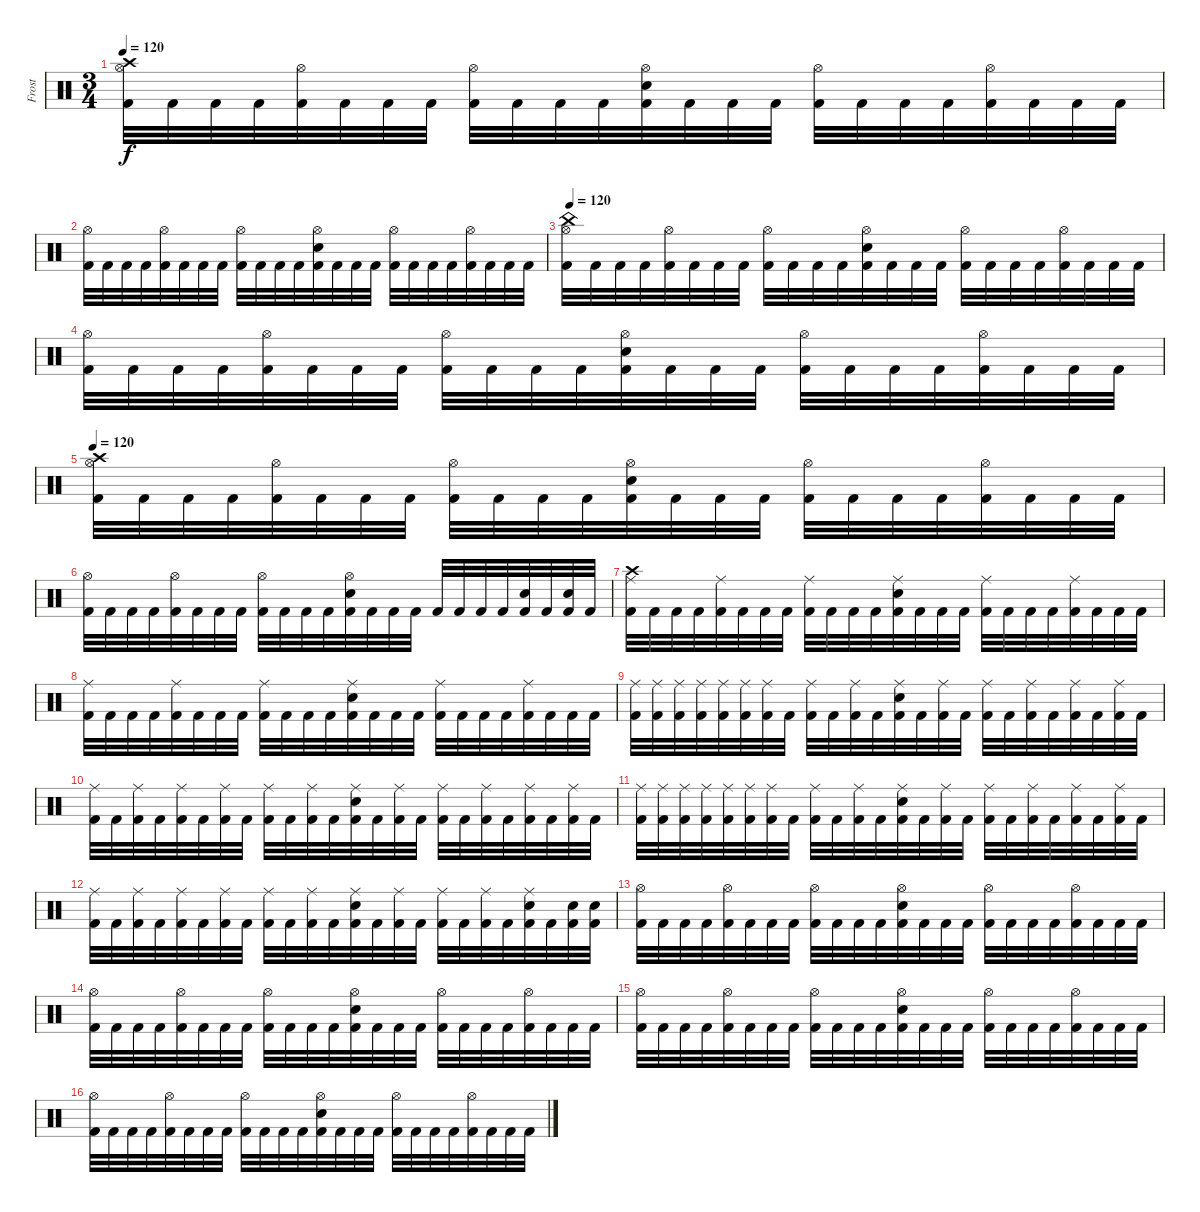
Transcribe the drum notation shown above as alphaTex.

\track ("Frost" "Frost") {instrument percussion}
\staff {score}
\articulation defaults
\ts (3 4)
\tempo 120
\clef neutral
\ks c
("Crash high (hit)" "Kick (hit) 2" "Hi-Hat (open)").32{dy f} "Kick (hit) 2".32 "Kick (hit) 2".32 "Kick (hit) 2".32 ("Kick (hit) 2" "Hi-Hat (open)").32 "Kick (hit) 2".32 "Kick (hit) 2".32 "Kick (hit) 2".32 ("Kick (hit) 2" "Hi-Hat (open)").32 "Kick (hit) 2".32 "Kick (hit) 2".32 "Kick (hit) 2".32 ("Kick (hit) 2" "Electric Snare (hit)" "Hi-Hat (open)").32 "Kick (hit) 2".32 "Kick (hit) 2".32 "Kick (hit) 2".32 ("Kick (hit) 2" "Hi-Hat (open)").32 "Kick (hit) 2".32 "Kick (hit) 2".32 "Kick (hit) 2".32 ("Kick (hit) 2" "Hi-Hat (open)").32 "Kick (hit) 2".32 "Kick (hit) 2".32 "Kick (hit) 2".32 |
("Kick (hit) 2" "Hi-Hat (open)").32 "Kick (hit) 2".32 "Kick (hit) 2".32 "Kick (hit) 2".32 ("Kick (hit) 2" "Hi-Hat (open)").32 "Kick (hit) 2".32 "Kick (hit) 2".32 "Kick (hit) 2".32 ("Kick (hit) 2" "Hi-Hat (open)").32 "Kick (hit) 2".32 "Kick (hit) 2".32 "Kick (hit) 2".32 ("Kick (hit) 2" "Electric Snare (hit)" "Hi-Hat (open)").32 "Kick (hit) 2".32 "Kick (hit) 2".32 "Kick (hit) 2".32 ("Kick (hit) 2" "Hi-Hat (open)").32 "Kick (hit) 2".32 "Kick (hit) 2".32 "Kick (hit) 2".32 ("Kick (hit) 2" "Hi-Hat (open)").32 "Kick (hit) 2".32 "Kick (hit) 2".32 "Kick (hit) 2".32 |
\tempo 120
("China (hit)" "Kick (hit) 2" "Hi-Hat (open)").32 "Kick (hit) 2".32 "Kick (hit) 2".32 "Kick (hit) 2".32 ("Kick (hit) 2" "Hi-Hat (open)").32 "Kick (hit) 2".32 "Kick (hit) 2".32 "Kick (hit) 2".32 ("Kick (hit) 2" "Hi-Hat (open)").32 "Kick (hit) 2".32 "Kick (hit) 2".32 "Kick (hit) 2".32 ("Kick (hit) 2" "Electric Snare (hit)" "Hi-Hat (open)").32 "Kick (hit) 2".32 "Kick (hit) 2".32 "Kick (hit) 2".32 ("Kick (hit) 2" "Hi-Hat (open)").32 "Kick (hit) 2".32 "Kick (hit) 2".32 "Kick (hit) 2".32 ("Kick (hit) 2" "Hi-Hat (open)").32 "Kick (hit) 2".32 "Kick (hit) 2".32 "Kick (hit) 2".32 |
("Kick (hit) 2" "Hi-Hat (open)").32 "Kick (hit) 2".32 "Kick (hit) 2".32 "Kick (hit) 2".32 ("Kick (hit) 2" "Hi-Hat (open)").32 "Kick (hit) 2".32 "Kick (hit) 2".32 "Kick (hit) 2".32 ("Kick (hit) 2" "Hi-Hat (open)").32 "Kick (hit) 2".32 "Kick (hit) 2".32 "Kick (hit) 2".32 ("Kick (hit) 2" "Electric Snare (hit)" "Hi-Hat (open)").32 "Kick (hit) 2".32 "Kick (hit) 2".32 "Kick (hit) 2".32 ("Kick (hit) 2" "Hi-Hat (open)").32 "Kick (hit) 2".32 "Kick (hit) 2".32 "Kick (hit) 2".32 ("Kick (hit) 2" "Hi-Hat (open)").32 "Kick (hit) 2".32 "Kick (hit) 2".32 "Kick (hit) 2".32 |
\tempo 120
("Crash high (hit)" "Kick (hit) 2" "Hi-Hat (open)").32 "Kick (hit) 2".32 "Kick (hit) 2".32 "Kick (hit) 2".32 ("Kick (hit) 2" "Hi-Hat (open)").32 "Kick (hit) 2".32 "Kick (hit) 2".32 "Kick (hit) 2".32 ("Kick (hit) 2" "Hi-Hat (open)").32 "Kick (hit) 2".32 "Kick (hit) 2".32 "Kick (hit) 2".32 ("Kick (hit) 2" "Electric Snare (hit)" "Hi-Hat (open)").32 "Kick (hit) 2".32 "Kick (hit) 2".32 "Kick (hit) 2".32 ("Kick (hit) 2" "Hi-Hat (open)").32 "Kick (hit) 2".32 "Kick (hit) 2".32 "Kick (hit) 2".32 ("Kick (hit) 2" "Hi-Hat (open)").32 "Kick (hit) 2".32 "Kick (hit) 2".32 "Kick (hit) 2".32 |
("Kick (hit) 2" "Hi-Hat (open)").32 "Kick (hit) 2".32 "Kick (hit) 2".32 "Kick (hit) 2".32 ("Kick (hit) 2" "Hi-Hat (open)").32 "Kick (hit) 2".32 "Kick (hit) 2".32 "Kick (hit) 2".32 ("Kick (hit) 2" "Hi-Hat (open)").32 "Kick (hit) 2".32 "Kick (hit) 2".32 "Kick (hit) 2".32 ("Kick (hit) 2" "Electric Snare (hit)" "Hi-Hat (open)").32 "Kick (hit) 2".32 "Kick (hit) 2".32 "Kick (hit) 2".32 "Kick (hit) 2".32 "Kick (hit) 2".32 "Kick (hit) 2".32 "Kick (hit) 2".32 ("Kick (hit) 2" "Electric Snare (hit)").32 "Kick (hit) 2".32 ("Kick (hit) 2" "Electric Snare (hit)").32 "Kick (hit) 2".32 |
("Crash high (hit)" "Kick (hit) 2" "Ride (middle)").32 "Kick (hit) 2".32 "Kick (hit) 2".32 "Kick (hit) 2".32 ("Kick (hit) 2" "Ride (middle)").32 "Kick (hit) 2".32 "Kick (hit) 2".32 "Kick (hit) 2".32 ("Kick (hit) 2" "Ride (middle)").32 "Kick (hit) 2".32 "Kick (hit) 2".32 "Kick (hit) 2".32 ("Kick (hit) 2" "Electric Snare (hit)" "Ride (middle)").32 "Kick (hit) 2".32 "Kick (hit) 2".32 "Kick (hit) 2".32 ("Kick (hit) 2" "Ride (middle)").32 "Kick (hit) 2".32 "Kick (hit) 2".32 "Kick (hit) 2".32 ("Kick (hit) 2" "Ride (middle)").32 "Kick (hit) 2".32 "Kick (hit) 2".32 "Kick (hit) 2".32 |
("Kick (hit) 2" "Ride (middle)").32 "Kick (hit) 2".32 "Kick (hit) 2".32 "Kick (hit) 2".32 ("Kick (hit) 2" "Ride (middle)").32 "Kick (hit) 2".32 "Kick (hit) 2".32 "Kick (hit) 2".32 ("Kick (hit) 2" "Ride (middle)").32 "Kick (hit) 2".32 "Kick (hit) 2".32 "Kick (hit) 2".32 ("Kick (hit) 2" "Electric Snare (hit)" "Ride (middle)").32 "Kick (hit) 2".32 "Kick (hit) 2".32 "Kick (hit) 2".32 ("Kick (hit) 2" "Ride (middle)").32 "Kick (hit) 2".32 "Kick (hit) 2".32 "Kick (hit) 2".32 ("Kick (hit) 2" "Ride (middle)").32 "Kick (hit) 2".32 "Kick (hit) 2".32 "Kick (hit) 2".32 |
("Kick (hit) 2" "Ride (middle)").32 ("Kick (hit) 2" "Ride (middle)").32 ("Kick (hit) 2" "Ride (middle)").32 ("Kick (hit) 2" "Ride (middle)").32 ("Kick (hit) 2" "Ride (middle)").32 ("Kick (hit) 2" "Ride (middle)").32 ("Kick (hit) 2" "Ride (middle)").32 "Kick (hit) 2".32 ("Kick (hit) 2" "Ride (middle)").32 "Kick (hit) 2".32 ("Kick (hit) 2" "Ride (middle)").32 "Kick (hit) 2".32 ("Kick (hit) 2" "Electric Snare (hit)" "Ride (middle)").32 "Kick (hit) 2".32 ("Kick (hit) 2" "Ride (middle)").32 "Kick (hit) 2".32 ("Kick (hit) 2" "Ride (middle)").32 "Kick (hit) 2".32 ("Kick (hit) 2" "Ride (middle)").32 "Kick (hit) 2".32 ("Kick (hit) 2" "Ride (middle)").32 "Kick (hit) 2".32 ("Kick (hit) 2" "Ride (middle)").32 "Kick (hit) 2".32 |
("Kick (hit) 2" "Ride (middle)").32 "Kick (hit) 2".32 ("Kick (hit) 2" "Ride (middle)").32 "Kick (hit) 2".32 ("Kick (hit) 2" "Ride (middle)").32 "Kick (hit) 2".32 ("Kick (hit) 2" "Ride (middle)").32 "Kick (hit) 2".32 ("Kick (hit) 2" "Ride (middle)").32 "Kick (hit) 2".32 ("Kick (hit) 2" "Ride (middle)").32 "Kick (hit) 2".32 ("Kick (hit) 2" "Electric Snare (hit)" "Ride (middle)").32 "Kick (hit) 2".32 ("Kick (hit) 2" "Ride (middle)").32 "Kick (hit) 2".32 ("Kick (hit) 2" "Ride (middle)").32 "Kick (hit) 2".32 ("Kick (hit) 2" "Ride (middle)").32 "Kick (hit) 2".32 ("Kick (hit) 2" "Ride (middle)").32 "Kick (hit) 2".32 ("Kick (hit) 2" "Ride (middle)").32 "Kick (hit) 2".32 |
("Kick (hit) 2" "Ride (middle)").32 ("Kick (hit) 2" "Ride (middle)").32 ("Kick (hit) 2" "Ride (middle)").32 ("Kick (hit) 2" "Ride (middle)").32 ("Kick (hit) 2" "Ride (middle)").32 ("Kick (hit) 2" "Ride (middle)").32 ("Kick (hit) 2" "Ride (middle)").32 "Kick (hit) 2".32 ("Kick (hit) 2" "Ride (middle)").32 "Kick (hit) 2".32 ("Kick (hit) 2" "Ride (middle)").32 "Kick (hit) 2".32 ("Kick (hit) 2" "Electric Snare (hit)" "Ride (middle)").32 "Kick (hit) 2".32 ("Kick (hit) 2" "Ride (middle)").32 "Kick (hit) 2".32 ("Kick (hit) 2" "Ride (middle)").32 "Kick (hit) 2".32 ("Kick (hit) 2" "Ride (middle)").32 "Kick (hit) 2".32 ("Kick (hit) 2" "Ride (middle)").32 "Kick (hit) 2".32 ("Kick (hit) 2" "Ride (middle)").32 "Kick (hit) 2".32 |
("Kick (hit) 2" "Ride (middle)").32 "Kick (hit) 2".32 ("Kick (hit) 2" "Ride (middle)").32 "Kick (hit) 2".32 ("Kick (hit) 2" "Ride (middle)").32 "Kick (hit) 2".32 ("Kick (hit) 2" "Ride (middle)").32 "Kick (hit) 2".32 ("Kick (hit) 2" "Ride (middle)").32 "Kick (hit) 2".32 ("Kick (hit) 2" "Ride (middle)").32 "Kick (hit) 2".32 ("Kick (hit) 2" "Electric Snare (hit)" "Ride (middle)").32 "Kick (hit) 2".32 ("Kick (hit) 2" "Ride (middle)").32 "Kick (hit) 2".32 ("Kick (hit) 2" "Ride (middle)").32 "Kick (hit) 2".32 ("Kick (hit) 2" "Ride (middle)").32 "Kick (hit) 2".32 ("Kick (hit) 2" "Electric Snare (hit)" "Ride (middle)").32 "Kick (hit) 2".32 ("Kick (hit) 2" "Electric Snare (hit)").32 ("Kick (hit) 2" "Electric Snare (hit)").32 |
("Kick (hit) 2" "Hi-Hat (open)").32 "Kick (hit) 2".32 "Kick (hit) 2".32 "Kick (hit) 2".32 ("Kick (hit) 2" "Hi-Hat (open)").32 "Kick (hit) 2".32 "Kick (hit) 2".32 "Kick (hit) 2".32 ("Kick (hit) 2" "Hi-Hat (open)").32 "Kick (hit) 2".32 "Kick (hit) 2".32 "Kick (hit) 2".32 ("Kick (hit) 2" "Electric Snare (hit)" "Hi-Hat (open)").32 "Kick (hit) 2".32 "Kick (hit) 2".32 "Kick (hit) 2".32 ("Kick (hit) 2" "Hi-Hat (open)").32 "Kick (hit) 2".32 "Kick (hit) 2".32 "Kick (hit) 2".32 ("Kick (hit) 2" "Hi-Hat (open)").32 "Kick (hit) 2".32 "Kick (hit) 2".32 "Kick (hit) 2".32 |
("Kick (hit) 2" "Hi-Hat (open)").32 "Kick (hit) 2".32 "Kick (hit) 2".32 "Kick (hit) 2".32 ("Kick (hit) 2" "Hi-Hat (open)").32 "Kick (hit) 2".32 "Kick (hit) 2".32 "Kick (hit) 2".32 ("Kick (hit) 2" "Hi-Hat (open)").32 "Kick (hit) 2".32 "Kick (hit) 2".32 "Kick (hit) 2".32 ("Kick (hit) 2" "Electric Snare (hit)" "Hi-Hat (open)").32 "Kick (hit) 2".32 "Kick (hit) 2".32 "Kick (hit) 2".32 ("Kick (hit) 2" "Hi-Hat (open)").32 "Kick (hit) 2".32 "Kick (hit) 2".32 "Kick (hit) 2".32 ("Kick (hit) 2" "Hi-Hat (open)").32 "Kick (hit) 2".32 "Kick (hit) 2".32 "Kick (hit) 2".32 |
("Kick (hit) 2" "Hi-Hat (open)").32 "Kick (hit) 2".32 "Kick (hit) 2".32 "Kick (hit) 2".32 ("Kick (hit) 2" "Hi-Hat (open)").32 "Kick (hit) 2".32 "Kick (hit) 2".32 "Kick (hit) 2".32 ("Kick (hit) 2" "Hi-Hat (open)").32 "Kick (hit) 2".32 "Kick (hit) 2".32 "Kick (hit) 2".32 ("Kick (hit) 2" "Electric Snare (hit)" "Hi-Hat (open)").32 "Kick (hit) 2".32 "Kick (hit) 2".32 "Kick (hit) 2".32 ("Kick (hit) 2" "Hi-Hat (open)").32 "Kick (hit) 2".32 "Kick (hit) 2".32 "Kick (hit) 2".32 ("Kick (hit) 2" "Hi-Hat (open)").32 "Kick (hit) 2".32 "Kick (hit) 2".32 "Kick (hit) 2".32 |
("Kick (hit) 2" "Hi-Hat (open)").32 "Kick (hit) 2".32 "Kick (hit) 2".32 "Kick (hit) 2".32 ("Kick (hit) 2" "Hi-Hat (open)").32 "Kick (hit) 2".32 "Kick (hit) 2".32 "Kick (hit) 2".32 ("Kick (hit) 2" "Hi-Hat (open)").32 "Kick (hit) 2".32 "Kick (hit) 2".32 "Kick (hit) 2".32 ("Kick (hit) 2" "Electric Snare (hit)" "Hi-Hat (open)").32 "Kick (hit) 2".32 "Kick (hit) 2".32 "Kick (hit) 2".32 ("Kick (hit) 2" "Hi-Hat (open)").32 "Kick (hit) 2".32 "Kick (hit) 2".32 "Kick (hit) 2".32 ("Kick (hit) 2" "Hi-Hat (open)").32 "Kick (hit) 2".32 "Kick (hit) 2".32 "Kick (hit) 2".32
